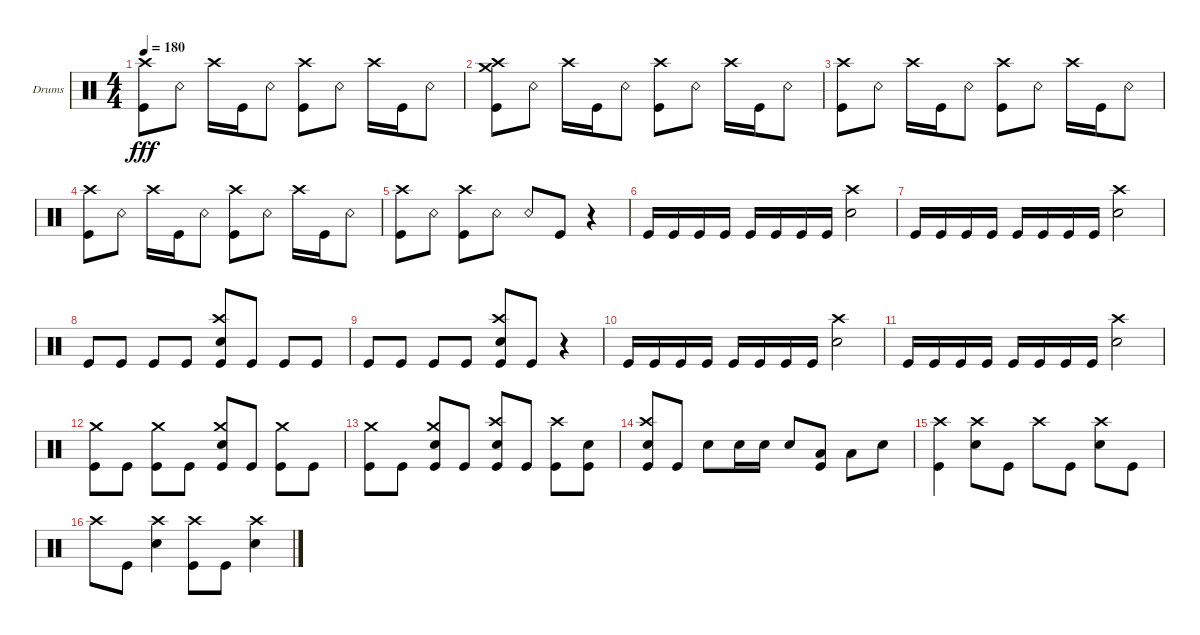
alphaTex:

\defaultSystemsLayout 4
\bracketExtendMode groupsimilarinstruments
\firstSystemTrackNameOrientation horizontal
\otherSystemsTrackNameOrientation horizontal
\track ("Drumkit" "Drums") {instrument percussion}
\staff {score}
\articulation defaults
\ts (4 4)
\tempo 180
\clef neutral
\ks c
("Kick (hit)" "Crash high (hit)").8{dy fff} "Snare (rim shot)".8 "Crash high (hit)".16 "Kick (hit)".16 "Snare (rim shot)".8 ("Kick (hit)" "Crash high (hit)").8 "Snare (rim shot)".8 "Crash high (hit)".16 "Kick (hit)".16 "Snare (rim shot)".8 |
("Kick (hit)" "Crash high (hit)" "Crash medium (hit)").8 "Snare (rim shot)".8 "Crash high (hit)".16 "Kick (hit)".16 "Snare (rim shot)".8 ("Kick (hit)" "Crash high (hit)").8 "Snare (rim shot)".8 "Crash high (hit)".16 "Kick (hit)".16 "Snare (rim shot)".8 |
("Kick (hit)" "Crash high (hit)").8 "Snare (rim shot)".8 "Crash high (hit)".16 "Kick (hit)".16 "Snare (rim shot)".8 ("Kick (hit)" "Crash high (hit)").8 "Snare (rim shot)".8 "Crash high (hit)".16 "Kick (hit)".16 "Snare (rim shot)".8 |
("Kick (hit)" "Crash high (hit)").8 "Snare (rim shot)".8 "Crash high (hit)".16 "Kick (hit)".16 "Snare (rim shot)".8 ("Kick (hit)" "Crash high (hit)").8 "Snare (rim shot)".8 "Crash high (hit)".16 "Kick (hit)".16 "Snare (rim shot)".8 |
("Kick (hit)" "Crash high (hit)").8 "Snare (rim shot)".8 ("Crash high (hit)" "Kick (hit)").8 "Snare (rim shot)".8 "Snare (rim shot)".8 "Kick (hit)".8 r.4 |
"Kick (hit)".16 "Kick (hit)".16 "Kick (hit)".16 "Kick (hit)".16 "Kick (hit)".16 "Kick (hit)".16 "Kick (hit)".16 "Kick (hit)".16 ("Snare (hit) 2" "Crash high (hit)").2 |
"Kick (hit)".16 "Kick (hit)".16 "Kick (hit)".16 "Kick (hit)".16 "Kick (hit)".16 "Kick (hit)".16 "Kick (hit)".16 "Kick (hit)".16 ("Snare (hit) 2" "Crash high (hit)").2 |
"Kick (hit)".8 "Kick (hit)".8 "Kick (hit)".8 "Kick (hit)".8 ("Kick (hit)" "Crash high (hit)" "Snare (hit) 2").8 "Kick (hit)".8 "Kick (hit)".8 "Kick (hit)".8 |
"Kick (hit)".8 "Kick (hit)".8 "Kick (hit)".8 "Kick (hit)".8 ("Kick (hit)" "Crash high (hit)" "Snare (hit) 2").8 "Kick (hit)".8 r.4 |
"Kick (hit)".16 "Kick (hit)".16 "Kick (hit)".16 "Kick (hit)".16 "Kick (hit)".16 "Kick (hit)".16 "Kick (hit)".16 "Kick (hit)".16 ("Snare (hit) 2" "Crash high (hit)").2 |
"Kick (hit)".16 "Kick (hit)".16 "Kick (hit)".16 "Kick (hit)".16 "Kick (hit)".16 "Kick (hit)".16 "Kick (hit)".16 "Kick (hit)".16 ("Snare (hit) 2" "Crash high (hit)").2 |
("Kick (hit)" "Crash medium (hit)").8 "Kick (hit)".8 ("Kick (hit)" "Crash medium (hit)").8 "Kick (hit)".8 ("Kick (hit)" "Snare (hit) 2" "Crash medium (hit)").8 "Kick (hit)".8 ("Kick (hit)" "Crash medium (hit)").8 "Kick (hit)".8 |
("Kick (hit)" "Crash medium (hit)").8 "Kick (hit)".8 ("Kick (hit)" "Crash medium (hit)" "Snare (hit) 2").8 "Kick (hit)".8 ("Kick (hit)" "Snare (hit) 2" "Crash high (hit)").8 "Kick (hit)".8 ("Kick (hit)" "Crash high (hit)").8 ("Kick (hit)" "Snare (hit) 2").8 |
("Kick (hit)" "Snare (hit) 2" "Crash high (hit)").8 "Kick (hit)".8 "Snare (hit) 2".8 "Snare (hit) 2".16 "Snare (hit) 2".16 "Snare (hit) 2".8 ("Kick (hit)" "Low Tom (hit)").8 "Low Tom (hit)".8 "Snare (hit) 2".8 |
("Kick (hit)" "Crash high (hit)").4 ("Snare (hit) 2" "Crash high (hit)").8 "Kick (hit)".8 "Crash high (hit)".8 "Kick (hit)".8 ("Snare (hit) 2" "Crash high (hit)").8 "Kick (hit)".8 |
"Crash high (hit)".8 "Kick (hit)".8 ("Snare (hit) 2" "Crash high (hit)").4 ("Kick (hit)" "Crash high (hit)").8 "Kick (hit)".8 ("Snare (hit) 2" "Crash high (hit)").4
